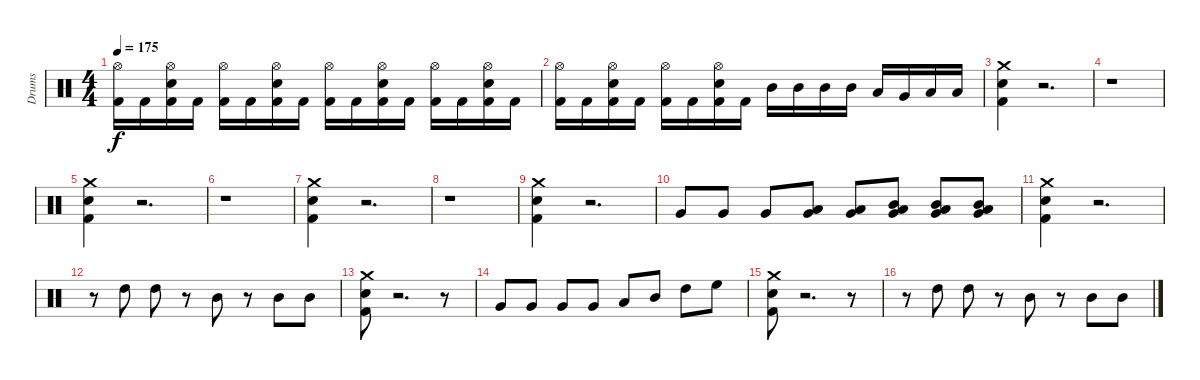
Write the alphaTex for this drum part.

\track ("Drums" "Drums") {instrument percussion}
\staff {score}
\articulation defaults
\ts (4 4)
\tempo 175
\clef neutral
\ks c
("Hi-Hat (open)" "Kick (hit) 2").16{dy f} "Kick (hit) 2".16 ("Hi-Hat (open)" "Kick (hit) 2" "Electric Snare (hit)").16 "Kick (hit) 2".16 ("Hi-Hat (open)" "Kick (hit) 2").16 "Kick (hit) 2".16 ("Hi-Hat (open)" "Kick (hit) 2" "Electric Snare (hit)").16 "Kick (hit) 2".16 ("Hi-Hat (open)" "Kick (hit) 2").16 "Kick (hit) 2".16 ("Hi-Hat (open)" "Kick (hit) 2" "Electric Snare (hit)").16 "Kick (hit) 2".16 ("Hi-Hat (open)" "Kick (hit) 2").16 "Kick (hit) 2".16 ("Hi-Hat (open)" "Kick (hit) 2" "Electric Snare (hit)").16 "Kick (hit) 2".16 |
("Hi-Hat (open)" "Kick (hit) 2").16 "Kick (hit) 2".16 ("Hi-Hat (open)" "Kick (hit) 2" "Electric Snare (hit)").16 "Kick (hit) 2".16 ("Hi-Hat (open)" "Kick (hit) 2").16 "Kick (hit) 2".16 ("Hi-Hat (open)" "Kick (hit) 2" "Electric Snare (hit)").16 "Kick (hit) 2".16 "Mid Tom (hit)".16 "Mid Tom (hit)".16 "Mid Tom (hit)".16 "Mid Tom (hit)".16 "Low Tom (hit)".16 "Very Low Tom (hit)".16 "Low Tom (hit)".16 "Low Tom (hit)".16 |
("Crash medium (hit)" "Electric Snare (hit)" "Kick (hit) 2").4 r.2{d} |
r.1 |
("Crash medium (hit)" "Electric Snare (hit)" "Kick (hit) 2").4 r.2{d} |
r.1 |
("Crash medium (hit)" "Electric Snare (hit)" "Kick (hit) 2").4 r.2{d} |
r.1 |
("Crash medium (hit)" "Electric Snare (hit)" "Kick (hit) 2").4 r.2{d} |
"Very Low Tom (hit)".8 "Very Low Tom (hit)".8 "Very Low Tom (hit)".8 ("Low Tom (hit)" "Very Low Tom (hit)").8 ("Low Tom (hit)" "Very Low Tom (hit)").8 ("Mid Tom (hit)" "Low Tom (hit)" "Very Low Tom (hit)").8 ("Mid Tom (hit)" "Low Tom (hit)" "Very Low Tom (hit)").8 ("Mid Tom (hit)" "Low Tom (hit)" "Very Low Tom (hit)").8 |
("Crash medium (hit)" "Electric Snare (hit)" "Kick (hit) 2").4 r.2{d} |
r.8 "High Tom (hit)".8 "High Tom (hit)".8 r.8 "Mid Tom (hit)".8 r.8 "Mid Tom (hit)".8 "Mid Tom (hit)".8 |
("Crash medium (hit)" "Electric Snare (hit)" "Kick (hit) 2").8 r.2{d} r.8 |
"Very Low Tom (hit)".8 "Very Low Tom (hit)".8 "Very Low Tom (hit)".8 "Very Low Tom (hit)".8 "Low Tom (hit)".8 "Mid Tom (hit)".8 "High Tom (hit)".8 "High Floor Tom (hit)".8 |
("Crash medium (hit)" "Electric Snare (hit)" "Kick (hit) 2").8 r.2{d} r.8 |
r.8 "High Tom (hit)".8 "High Tom (hit)".8 r.8 "Mid Tom (hit)".8 r.8 "Mid Tom (hit)".8 "Mid Tom (hit)".8
